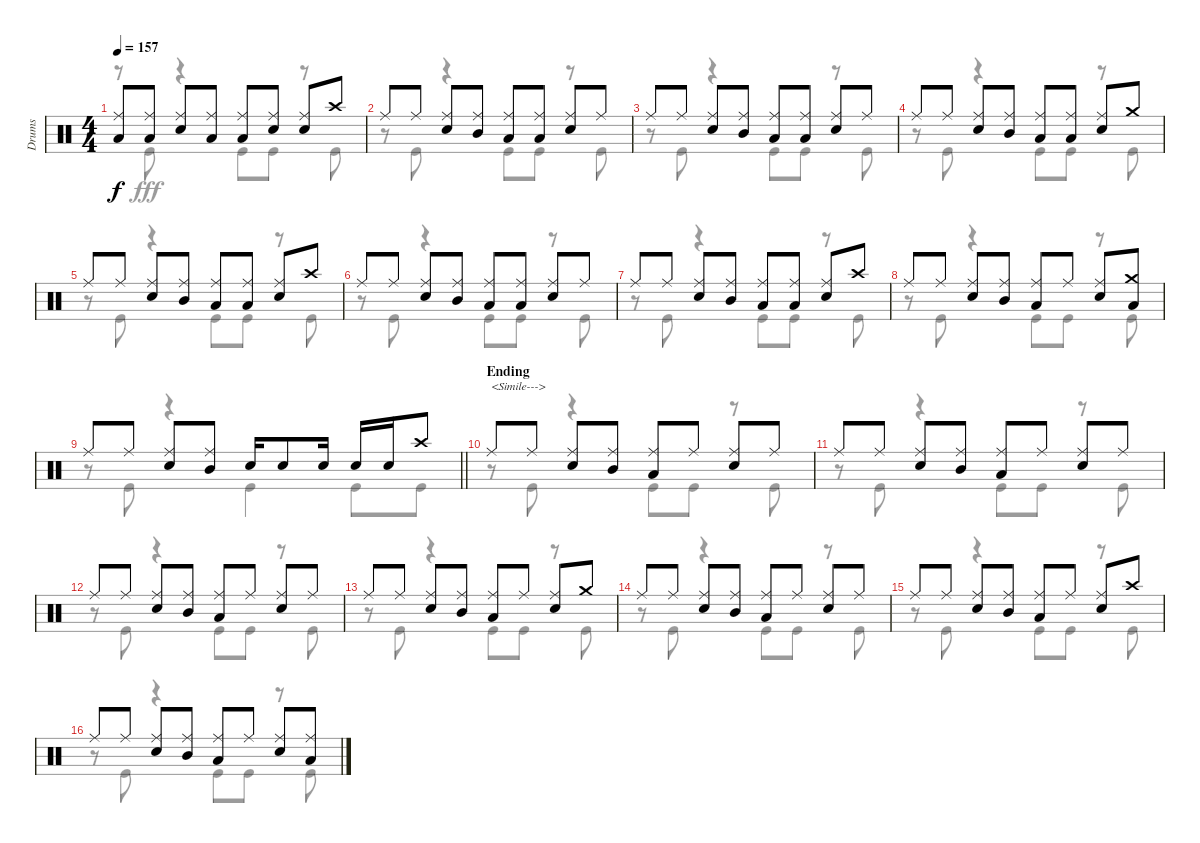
\track ("Drums" "Drums") {instrument percussion}
\staff {score}
\articulation defaults
\voice
\ts (4 4)
\tempo 157
\clef neutral
\ks c
("Ride (middle)" "Low Tom (hit)").8{dy f} ("Ride (middle)" "Low Tom (hit)").8 ("Ride (middle)" "Snare (hit) 2").8 ("Ride (middle)" "Low Tom (hit)").8 ("Ride (middle)" "Low Tom (hit)").8 ("Ride (middle)" "Snare (hit) 2").8 ("Ride (middle)" "Snare (hit) 2").8 "Crash high (hit)".8 |
"Ride (middle)".8 "Ride (middle)".8 ("Ride (middle)" "Snare (hit) 2").8 ("Ride (middle)" "Mid Tom (hit)").8 ("Ride (middle)" "Low Tom (hit)").8 ("Ride (middle)" "Low Tom (hit)").8 ("Ride (middle)" "Snare (hit) 2").8 "Ride (middle)".8 |
"Ride (middle)".8 "Ride (middle)".8 ("Ride (middle)" "Snare (hit) 2").8 ("Ride (middle)" "Mid Tom (hit)").8 ("Ride (middle)" "Low Tom (hit)").8 ("Ride (middle)" "Low Tom (hit)").8 ("Ride (middle)" "Snare (hit) 2").8 "Ride (middle)".8 |
"Ride (middle)".8 "Ride (middle)".8 ("Ride (middle)" "Snare (hit) 2").8 ("Ride (middle)" "Mid Tom (hit)").8 ("Ride (middle)" "Low Tom (hit)").8 ("Ride (middle)" "Low Tom (hit)").8 ("Ride (middle)" "Snare (hit) 2").8 "Crash medium (hit)".8 |
"Ride (middle)".8 "Ride (middle)".8 ("Ride (middle)" "Snare (hit) 2").8 ("Ride (middle)" "Mid Tom (hit)").8 ("Ride (middle)" "Low Tom (hit)").8 ("Ride (middle)" "Low Tom (hit)").8 ("Ride (middle)" "Snare (hit) 2").8 "Crash high (hit)".8 |
"Ride (middle)".8 "Ride (middle)".8 ("Ride (middle)" "Snare (hit) 2").8 ("Ride (middle)" "Mid Tom (hit)").8 ("Ride (middle)" "Low Tom (hit)").8 ("Ride (middle)" "Low Tom (hit)").8 ("Ride (middle)" "Snare (hit) 2").8 "Ride (middle)".8 |
"Ride (middle)".8 "Ride (middle)".8 ("Ride (middle)" "Snare (hit) 2").8 ("Ride (middle)" "Mid Tom (hit)").8 ("Ride (middle)" "Low Tom (hit)").8 ("Ride (middle)" "Low Tom (hit)").8 ("Ride (middle)" "Snare (hit) 2").8 "Crash high (hit)".8 |
"Ride (middle)".8 "Ride (middle)".8 ("Ride (middle)" "Snare (hit) 2").8 ("Ride (middle)" "Mid Tom (hit)").8 ("Ride (middle)" "Low Tom (hit)").8 "Ride (middle)".8 ("Ride (middle)" "Snare (hit) 2").8 ("Crash medium (hit)" "Low Tom (hit)").8 |
\barLineRight lightlight "Ride (middle)".8 "Ride (middle)".8
("Ride (middle)" "Snare (hit) 2").8 ("Ride (middle)" "Mid Tom (hit)").8 "Snare (hit) 2".16 "Snare (hit) 2".8 "Snare (hit) 2".16 "Snare (hit) 2".16 "Snare (hit) 2".16 "Crash high (hit)".8 |
\section ("" "Ending")
"Ride (middle)".8{txt "<Simile--->"} "Ride (middle)".8 ("Ride (middle)" "Snare (hit) 2").8 ("Ride (middle)" "Mid Tom (hit)").8 ("Ride (middle)" "Low Tom (hit)").8 "Ride (middle)".8 ("Ride (middle)" "Snare (hit) 2").8 "Ride (middle)".8 |
"Ride (middle)".8 "Ride (middle)".8 ("Ride (middle)" "Snare (hit) 2").8 ("Ride (middle)" "Mid Tom (hit)").8 ("Ride (middle)" "Low Tom (hit)").8 "Ride (middle)".8 ("Ride (middle)" "Snare (hit) 2").8 "Ride (middle)".8 |
"Ride (middle)".8 "Ride (middle)".8 ("Ride (middle)" "Snare (hit) 2").8 ("Ride (middle)" "Mid Tom (hit)").8 ("Ride (middle)" "Low Tom (hit)").8 "Ride (middle)".8 ("Ride (middle)" "Snare (hit) 2").8 "Ride (middle)".8 |
"Ride (middle)".8 "Ride (middle)".8 ("Ride (middle)" "Snare (hit) 2").8 ("Ride (middle)" "Mid Tom (hit)").8 ("Ride (middle)" "Low Tom (hit)").8 "Ride (middle)".8 ("Ride (middle)" "Snare (hit) 2").8 "Crash medium (hit)".8 |
"Ride (middle)".8 "Ride (middle)".8 ("Ride (middle)" "Snare (hit) 2").8 ("Ride (middle)" "Mid Tom (hit)").8 ("Ride (middle)" "Low Tom (hit)").8 "Ride (middle)".8 ("Ride (middle)" "Snare (hit) 2").8 "Ride (middle)".8 |
"Ride (middle)".8 "Ride (middle)".8 ("Ride (middle)" "Snare (hit) 2").8 ("Ride (middle)" "Mid Tom (hit)").8 ("Ride (middle)" "Low Tom (hit)").8 "Ride (middle)".8 ("Ride (middle)" "Snare (hit) 2").8 "Crash high (hit)".8 |
"Ride (middle)".8 "Ride (middle)".8 ("Ride (middle)" "Snare (hit) 2").8 ("Ride (middle)" "Mid Tom (hit)").8 ("Ride (middle)" "Low Tom (hit)").8 "Ride (middle)".8 ("Ride (middle)" "Snare (hit) 2").8 ("Ride (middle)" "Low Tom (hit)").8
\voice
\clef neutral
\ottava regular
\simile none
\ks c
r.8{dy fff} "Kick (hit)".8 r.4 "Kick (hit)".8 "Kick (hit)".8 r.8 "Kick (hit)".8 |
r.8 "Kick (hit)".8 r.4 "Kick (hit)".8 "Kick (hit)".8 r.8 "Kick (hit)".8 |
r.8 "Kick (hit)".8 r.4 "Kick (hit)".8 "Kick (hit)".8 r.8 "Kick (hit)".8 |
r.8 "Kick (hit)".8 r.4 "Kick (hit)".8 "Kick (hit)".8 r.8 "Kick (hit)".8 |
r.8 "Kick (hit)".8 r.4 "Kick (hit)".8 "Kick (hit)".8 r.8 "Kick (hit)".8 |
r.8 "Kick (hit)".8 r.4 "Kick (hit)".8 "Kick (hit)".8 r.8 "Kick (hit)".8 |
r.8 "Kick (hit)".8 r.4 "Kick (hit)".8 "Kick (hit)".8 r.8 "Kick (hit)".8 |
r.8 "Kick (hit)".8 r.4 "Kick (hit)".8 "Kick (hit)".8 r.8 "Kick (hit)".8 |
\barLineRight lightlight
r.8 "Kick (hit)".8 r.4 "Kick (hit)".4 "Kick (hit)".8 "Kick (hit)".8 |
r.8 "Kick (hit)".8 r.4 "Kick (hit)".8 "Kick (hit)".8 r.8 "Kick (hit)".8 |
r.8 "Kick (hit)".8 r.4 "Kick (hit)".8 "Kick (hit)".8 r.8 "Kick (hit)".8 |
r.8 "Kick (hit)".8 r.4 "Kick (hit)".8 "Kick (hit)".8 r.8 "Kick (hit)".8 |
r.8 "Kick (hit)".8 r.4 "Kick (hit)".8 "Kick (hit)".8 r.8 "Kick (hit)".8 |
r.8 "Kick (hit)".8 r.4 "Kick (hit)".8 "Kick (hit)".8 r.8 "Kick (hit)".8 |
r.8 "Kick (hit)".8 r.4 "Kick (hit)".8 "Kick (hit)".8 r.8 "Kick (hit)".8 |
r.8 "Kick (hit)".8 r.4 "Kick (hit)".8 "Kick (hit)".8 r.8 "Kick (hit)".8
